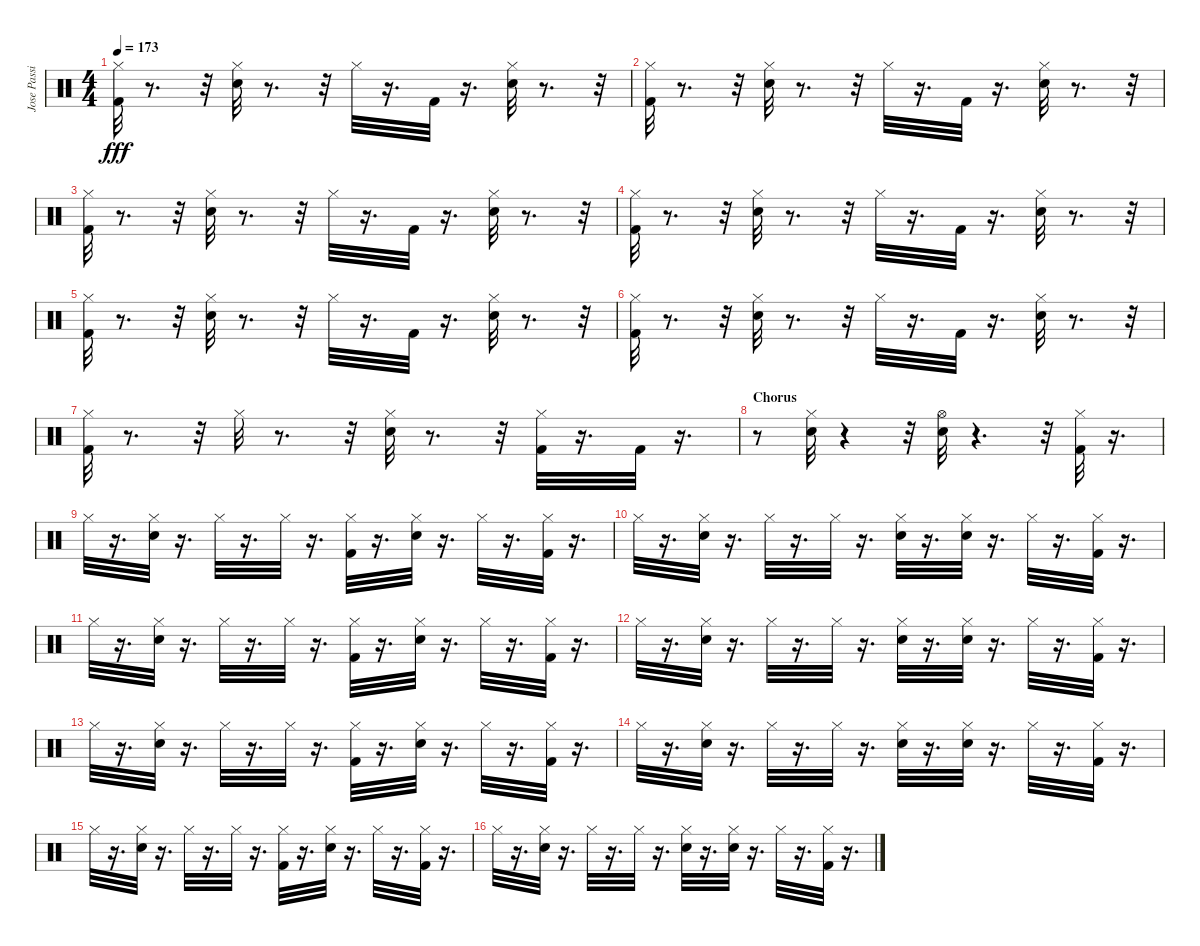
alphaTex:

\track ("Jose Passilas-Drums" "Jose Passi") {instrument percussion}
\staff {score}
\articulation defaults
\ts (4 4)
\tempo 173
\clef neutral
\ks c
("Kick (hit) 2" "Hi-Hat (closed)").32{dy fff} r.8{d} r.32 ("Hi-Hat (closed)" "Electric Snare (hit)").32 r.8{d} r.32 "Hi-Hat (closed)".32 r.16{d} "Kick (hit) 2".32 r.16{d} ("Hi-Hat (closed)" "Electric Snare (hit)").32 r.8{d} r.32 |
("Hi-Hat (closed)" "Kick (hit) 2").32 r.8{d} r.32 ("Hi-Hat (closed)" "Electric Snare (hit)").32 r.8{d} r.32 "Hi-Hat (closed)".32 r.16{d} "Kick (hit) 2".32 r.16{d} ("Hi-Hat (closed)" "Electric Snare (hit)").32 r.8{d} r.32 |
("Kick (hit) 2" "Hi-Hat (closed)").32 r.8{d} r.32 ("Hi-Hat (closed)" "Electric Snare (hit)").32 r.8{d} r.32 "Hi-Hat (closed)".32 r.16{d} "Kick (hit) 2".32 r.16{d} ("Hi-Hat (closed)" "Electric Snare (hit)").32 r.8{d} r.32 |
("Hi-Hat (closed)" "Kick (hit) 2").32 r.8{d} r.32 ("Hi-Hat (closed)" "Electric Snare (hit)").32 r.8{d} r.32 "Hi-Hat (closed)".32 r.16{d} "Kick (hit) 2".32 r.16{d} ("Hi-Hat (closed)" "Electric Snare (hit)").32 r.8{d} r.32 |
("Kick (hit) 2" "Hi-Hat (closed)").32 r.8{d} r.32 ("Hi-Hat (closed)" "Electric Snare (hit)").32 r.8{d} r.32 "Hi-Hat (closed)".32 r.16{d} "Kick (hit) 2".32 r.16{d} ("Hi-Hat (closed)" "Electric Snare (hit)").32 r.8{d} r.32 |
("Hi-Hat (closed)" "Kick (hit) 2").32 r.8{d} r.32 ("Hi-Hat (closed)" "Electric Snare (hit)").32 r.8{d} r.32 "Hi-Hat (closed)".32 r.16{d} "Kick (hit) 2".32 r.16{d} ("Hi-Hat (closed)" "Electric Snare (hit)").32 r.8{d} r.32 |
("Kick (hit) 2" "Hi-Hat (closed)").32 r.8{d} r.32 "Hi-Hat (closed)".32 r.8{d} r.32 ("Electric Snare (hit)" "Hi-Hat (closed)").32 r.8{d} r.32 ("Kick (hit) 2" "Hi-Hat (closed)").32 r.16{d} "Kick (hit) 2".32 r.16{d} |
\section ("" "Chorus")
r.8 ("Electric Snare (hit)" "Hi-Hat (closed)").32 r.4 r.32 ("Electric Snare (hit)" "Hi-Hat (open)").32 r.4{d} r.32 ("Kick (hit) 2" "Hi-Hat (closed)").32 r.16{d} |
"Hi-Hat (closed)".32 r.16{d} ("Electric Snare (hit)" "Hi-Hat (closed)").32 r.16{d} "Hi-Hat (closed)".32 r.16{d} "Hi-Hat (closed)".32 r.16{d} ("Kick (hit) 2" "Hi-Hat (closed)").32 r.16{d} ("Electric Snare (hit)" "Hi-Hat (closed)").32 r.16{d} "Hi-Hat (closed)".32 r.16{d} ("Kick (hit) 2" "Hi-Hat (closed)").32 r.16{d} |
"Hi-Hat (closed)".32 r.16{d} ("Electric Snare (hit)" "Hi-Hat (closed)").32 r.16{d} "Hi-Hat (closed)".32 r.16{d} "Hi-Hat (closed)".32 r.16{d} ("Electric Snare (hit)" "Hi-Hat (closed)").32 r.16{d} ("Electric Snare (hit)" "Hi-Hat (closed)").32 r.16{d} "Hi-Hat (closed)".32 r.16{d} ("Kick (hit) 2" "Hi-Hat (closed)").32 r.16{d} |
"Hi-Hat (closed)".32 r.16{d} ("Hi-Hat (closed)" "Electric Snare (hit)").32 r.16{d} "Hi-Hat (closed)".32 r.16{d} "Hi-Hat (closed)".32 r.16{d} ("Hi-Hat (closed)" "Kick (hit) 2").32 r.16{d} ("Hi-Hat (closed)" "Electric Snare (hit)").32 r.16{d} "Hi-Hat (closed)".32 r.16{d} ("Hi-Hat (closed)" "Kick (hit) 2").32 r.16{d} |
"Hi-Hat (closed)".32 r.16{d} ("Hi-Hat (closed)" "Electric Snare (hit)").32 r.16{d} "Hi-Hat (closed)".32 r.16{d} "Hi-Hat (closed)".32 r.16{d} ("Hi-Hat (closed)" "Electric Snare (hit)").32 r.16{d} ("Hi-Hat (closed)" "Electric Snare (hit)").32 r.16{d} "Hi-Hat (closed)".32 r.16{d} ("Hi-Hat (closed)" "Kick (hit) 2").32 r.16{d} |
"Hi-Hat (closed)".32 r.16{d} ("Hi-Hat (closed)" "Electric Snare (hit)").32 r.16{d} "Hi-Hat (closed)".32 r.16{d} "Hi-Hat (closed)".32 r.16{d} ("Hi-Hat (closed)" "Kick (hit) 2").32 r.16{d} ("Hi-Hat (closed)" "Electric Snare (hit)").32 r.16{d} "Hi-Hat (closed)".32 r.16{d} ("Hi-Hat (closed)" "Kick (hit) 2").32 r.16{d} |
"Hi-Hat (closed)".32 r.16{d} ("Hi-Hat (closed)" "Electric Snare (hit)").32 r.16{d} "Hi-Hat (closed)".32 r.16{d} "Hi-Hat (closed)".32 r.16{d} ("Hi-Hat (closed)" "Electric Snare (hit)").32 r.16{d} ("Hi-Hat (closed)" "Electric Snare (hit)").32 r.16{d} "Hi-Hat (closed)".32 r.16{d} ("Hi-Hat (closed)" "Kick (hit) 2").32 r.16{d} |
"Hi-Hat (closed)".32 r.16{d} ("Electric Snare (hit)" "Hi-Hat (closed)").32 r.16{d} "Hi-Hat (closed)".32 r.16{d} "Hi-Hat (closed)".32 r.16{d} ("Kick (hit) 2" "Hi-Hat (closed)").32 r.16{d} ("Electric Snare (hit)" "Hi-Hat (closed)").32 r.16{d} "Hi-Hat (closed)".32 r.16{d} ("Kick (hit) 2" "Hi-Hat (closed)").32 r.16{d} |
"Hi-Hat (closed)".32 r.16{d} ("Electric Snare (hit)" "Hi-Hat (closed)").32 r.16{d} "Hi-Hat (closed)".32 r.16{d} "Hi-Hat (closed)".32 r.16{d} ("Electric Snare (hit)" "Hi-Hat (closed)").32 r.16{d} ("Electric Snare (hit)" "Hi-Hat (closed)").32 r.16{d} "Hi-Hat (closed)".32 r.16{d} ("Hi-Hat (closed)" "Kick (hit) 2").32 r.16{d}
